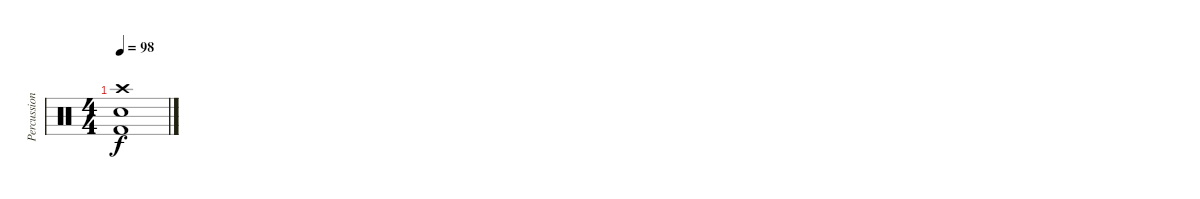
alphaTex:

\track ("Percussion" "Percussion") {instrument percussion}
\staff {score}
\articulation defaults
\ts (4 4)
\tempo 98
\clef neutral
\ks c
("Snare (hit) 2" "Crash high (hit)" "Kick (hit) 2").1{dy f}
